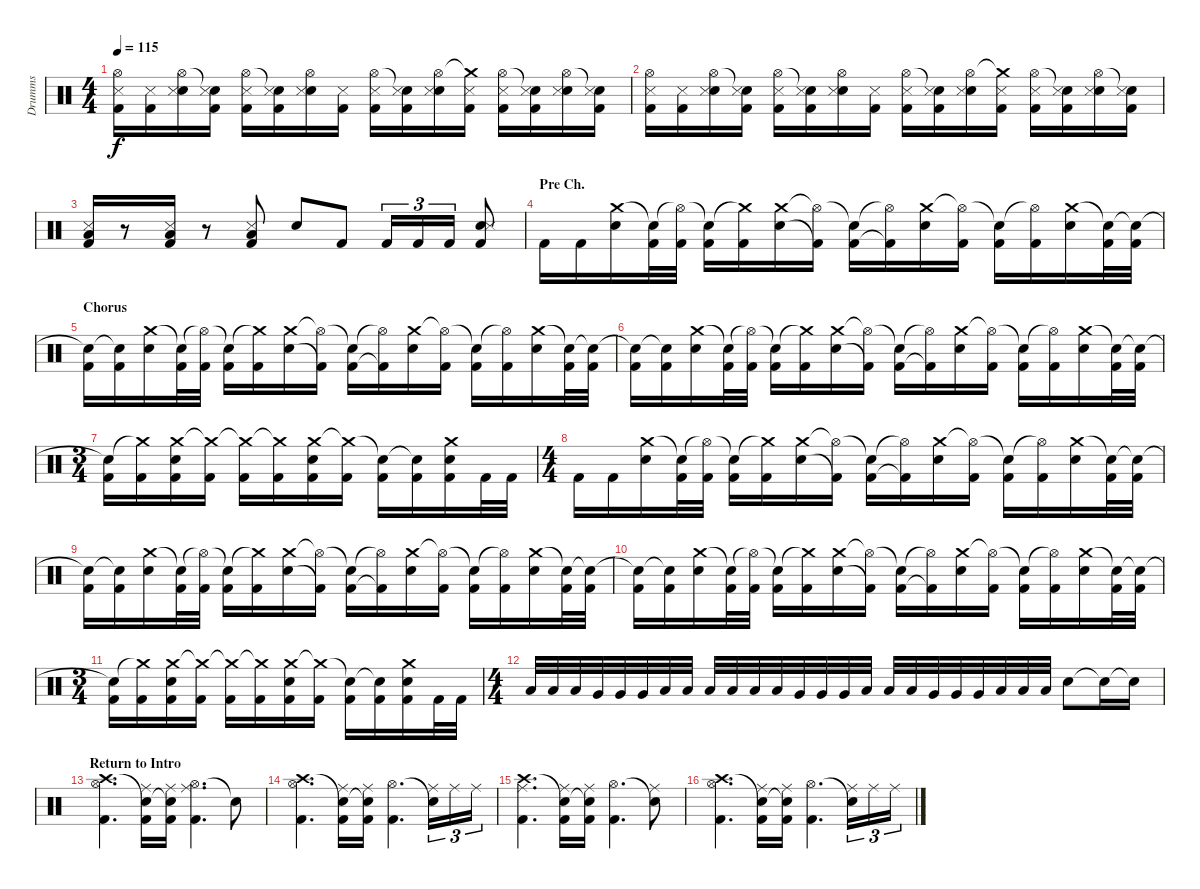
\track ("Drumms" "Drumms") {instrument percussion}
\staff {score}
\articulation defaults
\ts (4 4)
\tempo 115
\clef neutral
\ks c
("Hi-Hat (open)" "Kick (hit) 2" "Snare (side stick) 3").16{dy f} ("Kick (hit) 2" "Snare (side stick) 3").16 ("Hi-Hat (open)" "Electric Snare (hit)" "Snare (side stick) 3").16 ("Snare (hit)"{t} "Kick (hit) 2" "Snare (side stick) 3").16 ("Hi-Hat (open)" "Kick (hit) 2" "Snare (side stick) 3").16 ("Snare (hit)"{t} "Kick (hit) 2" "Snare (side stick) 3").16 ("Hi-Hat (open)" "Electric Snare (hit)" "Snare (side stick) 3").16 ("Kick (hit) 2" "Snare (side stick) 3").16 ("Hi-Hat (open)" "Kick (hit) 2" "Snare (side stick) 3").16 ("Snare (hit)"{t} "Kick (hit) 2" "Snare (side stick) 3").16 ("Hi-Hat (open)" "Electric Snare (hit)" "Snare (side stick) 3").16 ("Crash medium (hit)"{t} "Kick (hit) 2" "Snare (side stick) 3").16 ("Hi-Hat (open)" "Kick (hit) 2" "Snare (side stick) 3").16 ("Snare (hit)"{t} "Kick (hit) 2" "Snare (side stick) 3").16 ("Hi-Hat (open)" "Electric Snare (hit)" "Snare (side stick) 3").16 ("Snare (hit)"{t} "Kick (hit) 2" "Snare (side stick) 3").16 |
("Hi-Hat (open)" "Kick (hit) 2" "Snare (side stick) 3").16 ("Kick (hit) 2" "Snare (side stick) 3").16 ("Hi-Hat (open)" "Electric Snare (hit)" "Snare (side stick) 3").16 ("Snare (hit)"{t} "Kick (hit) 2" "Snare (side stick) 3").16 ("Hi-Hat (open)" "Kick (hit) 2" "Snare (side stick) 3").16 ("Snare (hit)"{t} "Kick (hit) 2" "Snare (side stick) 3").16 ("Hi-Hat (open)" "Electric Snare (hit)" "Snare (side stick) 3").16 ("Kick (hit) 2" "Snare (side stick) 3").16 ("Hi-Hat (open)" "Kick (hit) 2" "Snare (side stick) 3").16 ("Snare (hit)"{t} "Kick (hit) 2" "Snare (side stick) 3").16 ("Hi-Hat (open)" "Electric Snare (hit)" "Snare (side stick) 3").16 ("Crash medium (hit)"{t} "Kick (hit) 2" "Snare (side stick) 3").16 ("Hi-Hat (open)" "Kick (hit) 2" "Snare (side stick) 3").16 ("Snare (hit)"{t} "Kick (hit) 2" "Snare (side stick) 3").16 ("Hi-Hat (open)" "Electric Snare (hit)" "Snare (side stick) 3").16 ("Snare (hit)"{t} "Kick (hit) 2" "Snare (side stick) 3").16 |
("Low Floor Tom (hit)" "Kick (hit) 2" "Snare (side stick) 3").16 r.8 ("Low Floor Tom (hit)" "Kick (hit) 2" "Snare (side stick) 3").16 r.8 ("Low Floor Tom (hit)" "Kick (hit) 2" "Snare (side stick) 3").8 "Electric Snare (hit)".8 "Kick (hit) 2".8 "Kick (hit) 2".16{tu (3 2)} "Kick (hit) 2".16{tu (3 2)} "Kick (hit) 2".16{tu (3 2)} ("Electric Snare (hit)" "Snare (side stick) 3" "Kick (hit) 2").8 |
\section ("" "Pre Ch.")
"Kick (hit) 2".16 "Kick (hit) 2".16 ("Crash medium (hit)" "Electric Snare (hit)").16 ("Snare (hit)"{t} "Kick (hit) 2").32 ("Hi-Hat (open)"{t} "Kick (hit) 2").32 ("Snare (hit)"{t} "Kick (hit) 2").16 ("Crash medium (hit)"{t} "Kick (hit) 2").16 ("Crash medium (hit)" "Electric Snare (hit)").16 ("Hi-Hat (open)"{t} "Kick (hit) 2"{t}).16 ("Snare (hit)"{t} "Kick (hit) 2").16 ("Hi-Hat (open)"{t} "Kick (hit) 2"{t}).16 ("Crash medium (hit)" "Electric Snare (hit)").16 ("Hi-Hat (open)"{t} "Kick (hit) 2").16 ("Snare (hit)"{t} "Kick (hit) 2").16 ("Hi-Hat (open)"{t} "Kick (hit) 2").16 ("Crash medium (hit)" "Electric Snare (hit)").16 ("Snare (hit)"{t} "Kick (hit) 2").32 ("Snare (hit)"{t} "Kick (hit) 2").32 |
\section ("" "Chorus")
("Snare (hit)"{t} "Kick (hit) 2").16 ("Snare (hit)"{t} "Kick (hit) 2").16 ("Crash medium (hit)" "Electric Snare (hit)").16 ("Snare (hit)"{t} "Kick (hit) 2").32 ("Hi-Hat (open)"{t} "Kick (hit) 2").32 ("Snare (hit)"{t} "Kick (hit) 2").16 ("Crash medium (hit)"{t} "Kick (hit) 2").16 ("Crash medium (hit)" "Electric Snare (hit)").16 ("Hi-Hat (open)"{t} "Kick (hit) 2"{t}).16 ("Snare (hit)"{t} "Kick (hit) 2").16 ("Hi-Hat (open)"{t} "Kick (hit) 2"{t}).16 ("Crash medium (hit)" "Electric Snare (hit)").16 ("Hi-Hat (open)"{t} "Kick (hit) 2").16 ("Snare (hit)"{t} "Kick (hit) 2").16 ("Hi-Hat (open)"{t} "Kick (hit) 2").16 ("Crash medium (hit)" "Electric Snare (hit)").16 ("Snare (hit)"{t} "Kick (hit) 2").32 ("Snare (hit)"{t} "Kick (hit) 2").32 |
("Snare (hit)"{t} "Kick (hit) 2").16 ("Snare (hit)"{t} "Kick (hit) 2").16 ("Crash medium (hit)" "Electric Snare (hit)").16 ("Snare (hit)"{t} "Kick (hit) 2").32 ("Hi-Hat (open)"{t} "Kick (hit) 2").32 ("Snare (hit)"{t} "Kick (hit) 2").16 ("Crash medium (hit)"{t} "Kick (hit) 2").16 ("Crash medium (hit)" "Electric Snare (hit)").16 ("Hi-Hat (open)"{t} "Kick (hit) 2"{t}).16 ("Snare (hit)"{t} "Kick (hit) 2").16 ("Hi-Hat (open)"{t} "Kick (hit) 2"{t}).16 ("Crash medium (hit)" "Electric Snare (hit)").16 ("Hi-Hat (open)"{t} "Kick (hit) 2").16 ("Snare (hit)"{t} "Kick (hit) 2").16 ("Hi-Hat (open)"{t} "Kick (hit) 2").16 ("Crash medium (hit)" "Electric Snare (hit)").16 ("Snare (hit)"{t} "Kick (hit) 2").32 ("Snare (hit)"{t} "Kick (hit) 2").32 |
\ts (3 4)
("Snare (hit)"{t} "Kick (hit) 2").16 ("Crash medium (hit)"{t} "Kick (hit) 2").16 ("Crash medium (hit)" "Kick (hit) 2" "Electric Snare (hit)").16 ("Crash medium (hit)"{t} "Kick (hit) 2").16 ("Crash medium (hit)"{t} "Kick (hit) 2").16 ("Crash medium (hit)"{t} "Kick (hit) 2").16 ("Crash medium (hit)" "Kick (hit) 2" "Electric Snare (hit)").16 ("Crash medium (hit)"{t} "Kick (hit) 2").16 ("Snare (hit)"{t} "Kick (hit) 2").16 ("Snare (hit)"{t} "Kick (hit) 2").16 ("Crash medium (hit)" "Kick (hit) 2" "Electric Snare (hit)").16 "Kick (hit) 2".32 "Kick (hit) 2".32 |
\ts (4 4)
"Kick (hit) 2".16 "Kick (hit) 2".16 ("Crash medium (hit)" "Electric Snare (hit)").16 ("Snare (hit)"{t} "Kick (hit) 2").32 ("Hi-Hat (open)"{t} "Kick (hit) 2").32 ("Snare (hit)"{t} "Kick (hit) 2").16 ("Crash medium (hit)"{t} "Kick (hit) 2").16 ("Crash medium (hit)" "Electric Snare (hit)").16 ("Hi-Hat (open)"{t} "Kick (hit) 2"{t}).16 ("Snare (hit)"{t} "Kick (hit) 2").16 ("Hi-Hat (open)"{t} "Kick (hit) 2"{t}).16 ("Crash medium (hit)" "Electric Snare (hit)").16 ("Hi-Hat (open)"{t} "Kick (hit) 2").16 ("Snare (hit)"{t} "Kick (hit) 2").16 ("Hi-Hat (open)"{t} "Kick (hit) 2").16 ("Crash medium (hit)" "Electric Snare (hit)").16 ("Snare (hit)"{t} "Kick (hit) 2").32 ("Snare (hit)"{t} "Kick (hit) 2").32 |
("Snare (hit)"{t} "Kick (hit) 2").16 ("Snare (hit)"{t} "Kick (hit) 2").16 ("Crash medium (hit)" "Electric Snare (hit)").16 ("Snare (hit)"{t} "Kick (hit) 2").32 ("Hi-Hat (open)"{t} "Kick (hit) 2").32 ("Snare (hit)"{t} "Kick (hit) 2").16 ("Crash medium (hit)"{t} "Kick (hit) 2").16 ("Crash medium (hit)" "Electric Snare (hit)").16 ("Hi-Hat (open)"{t} "Kick (hit) 2"{t}).16 ("Snare (hit)"{t} "Kick (hit) 2").16 ("Hi-Hat (open)"{t} "Kick (hit) 2"{t}).16 ("Crash medium (hit)" "Electric Snare (hit)").16 ("Hi-Hat (open)"{t} "Kick (hit) 2").16 ("Snare (hit)"{t} "Kick (hit) 2").16 ("Hi-Hat (open)"{t} "Kick (hit) 2").16 ("Crash medium (hit)" "Electric Snare (hit)").16 ("Snare (hit)"{t} "Kick (hit) 2").32 ("Snare (hit)"{t} "Kick (hit) 2").32 |
("Snare (hit)"{t} "Kick (hit) 2").16 ("Snare (hit)"{t} "Kick (hit) 2").16 ("Crash medium (hit)" "Electric Snare (hit)").16 ("Snare (hit)"{t} "Kick (hit) 2").32 ("Hi-Hat (open)"{t} "Kick (hit) 2").32 ("Snare (hit)"{t} "Kick (hit) 2").16 ("Crash medium (hit)"{t} "Kick (hit) 2").16 ("Crash medium (hit)" "Electric Snare (hit)").16 ("Hi-Hat (open)"{t} "Kick (hit) 2"{t}).16 ("Snare (hit)"{t} "Kick (hit) 2").16 ("Hi-Hat (open)"{t} "Kick (hit) 2"{t}).16 ("Crash medium (hit)" "Electric Snare (hit)").16 ("Hi-Hat (open)"{t} "Kick (hit) 2").16 ("Snare (hit)"{t} "Kick (hit) 2").16 ("Hi-Hat (open)"{t} "Kick (hit) 2").16 ("Crash medium (hit)" "Electric Snare (hit)").16 ("Snare (hit)"{t} "Kick (hit) 2").32 ("Snare (hit)"{t} "Kick (hit) 2").32 |
\ts (3 4)
("Snare (hit)"{t} "Kick (hit) 2").16 ("Crash medium (hit)"{t} "Kick (hit) 2").16 ("Crash medium (hit)" "Kick (hit) 2" "Electric Snare (hit)").16 ("Crash medium (hit)"{t} "Kick (hit) 2").16 ("Crash medium (hit)"{t} "Kick (hit) 2").16 ("Crash medium (hit)"{t} "Kick (hit) 2").16 ("Crash medium (hit)" "Kick (hit) 2" "Electric Snare (hit)").16 ("Crash medium (hit)"{t} "Kick (hit) 2").16 ("Snare (hit)"{t} "Kick (hit) 2").16 ("Snare (hit)"{t} "Kick (hit) 2").16 ("Crash medium (hit)" "Kick (hit) 2" "Electric Snare (hit)").16 "Kick (hit) 2".32 "Kick (hit) 2".32 |
\ts (4 4)
"Low Floor Tom (hit)".32 "Low Floor Tom (hit)".32 "Low Floor Tom (hit)".32 "Very Low Tom (hit)".32 "Very Low Tom (hit)".32 "Very Low Tom (hit)".32 "Low Tom (hit)".32 "Low Tom (hit)".32 "Low Tom (hit)".32 "Low Floor Tom (hit)".32 "Low Floor Tom (hit)".32 "Low Floor Tom (hit)".32 "Very Low Tom (hit)".32 "Very Low Tom (hit)".32 "Very Low Tom (hit)".32 "Low Tom (hit)".32 "Low Tom (hit)".32 "Low Tom (hit)".32 "Very Low Tom (hit)".32 "Very Low Tom (hit)".32 "Very Low Tom (hit)".32 "Low Tom (hit)".32 "Low Tom (hit)".32 "Low Tom (hit)".32 "Electric Snare (hit)".8 "Electric Snare (hit)"{t}.16 "Electric Snare (hit)"{t}.16 |
\section ("" "Return to Intro")
("Crash high (hit)" "Hi-Hat (open)" "Kick (hit) 2").4{d} ("Snare (hit)"{t} "Kick (hit) 2" "Ride (middle)").16 ("Snare (hit)"{t} "Kick (hit) 2" "Ride (middle)").16 ("Hi-Hat (open)" "Kick (hit) 2" "Ride (middle)").4{d} "Snare (hit)"{t}.8 |
("Crash high (hit)" "Hi-Hat (open)" "Kick (hit) 2").4{d} ("Snare (hit)"{t} "Kick (hit) 2" "Ride (middle)").16 ("Snare (hit)"{t} "Kick (hit) 2" "Ride (middle)").16 ("Hi-Hat (open)" "Kick (hit) 2").4{d} ("Snare (hit)"{t} "Ride (middle)").16{tu (3 2)} "Ride (middle)".16{tu (3 2)} "Ride (middle)".16{tu (3 2)} |
("Crash high (hit)" "Ride (middle)" "Kick (hit) 2").4{d} ("Snare (hit)"{t} "Kick (hit) 2" "Ride (middle)").16 ("Snare (hit)"{t} "Kick (hit) 2" "Ride (middle)").16 ("Hi-Hat (open)" "Kick (hit) 2").4{d} ("Snare (hit)"{t} "Ride (middle)").8 |
("Crash high (hit)" "Hi-Hat (open)" "Kick (hit) 2").4{d} ("Snare (hit)"{t} "Kick (hit) 2" "Ride (middle)").16 ("Snare (hit)"{t} "Kick (hit) 2" "Ride (middle)").16 ("Hi-Hat (open)" "Kick (hit) 2").4{d} ("Snare (hit)"{t} "Ride (middle)").16{tu (3 2)} "Ride (middle)".16{tu (3 2)} "Ride (middle)".16{tu (3 2)}
